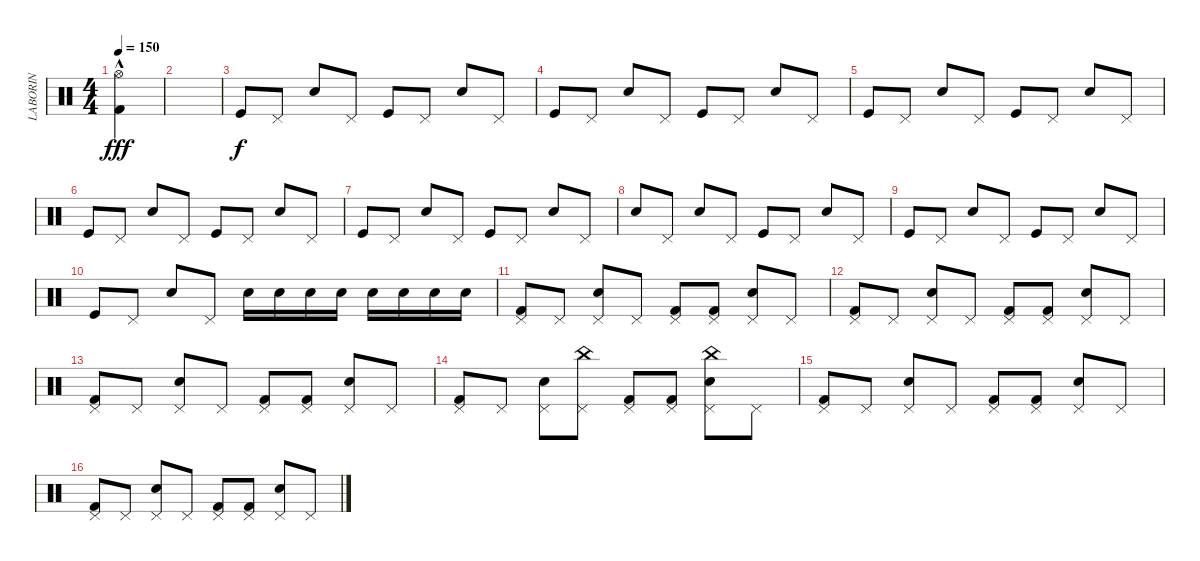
\track ("LABORIN" "LABORIN") {instrument percussion}
\staff {score}
\articulation defaults
\ts (4 4)
\tempo 150
\clef neutral
\ks c
("Kick (hit) 2"{hac} "Hi-Hat (open)").4{dy fff} |
|
"Kick (hit)".8{dy f} "Pedal Hi-Hat (hit)".8 "Snare (hit) 2".8 "Pedal Hi-Hat (hit)".8 "Kick (hit)".8 "Pedal Hi-Hat (hit)".8 "Snare (hit) 2".8 "Pedal Hi-Hat (hit)".8 |
"Kick (hit)".8 "Pedal Hi-Hat (hit)".8 "Snare (hit) 2".8 "Pedal Hi-Hat (hit)".8 "Kick (hit)".8 "Pedal Hi-Hat (hit)".8 "Snare (hit) 2".8 "Pedal Hi-Hat (hit)".8 |
"Kick (hit)".8 "Pedal Hi-Hat (hit)".8 "Snare (hit) 2".8 "Pedal Hi-Hat (hit)".8 "Kick (hit)".8 "Pedal Hi-Hat (hit)".8 "Snare (hit) 2".8 "Pedal Hi-Hat (hit)".8 |
"Kick (hit)".8 "Pedal Hi-Hat (hit)".8 "Snare (hit) 2".8 "Pedal Hi-Hat (hit)".8 "Kick (hit)".8 "Pedal Hi-Hat (hit)".8 "Snare (hit) 2".8 "Pedal Hi-Hat (hit)".8 |
"Kick (hit)".8 "Pedal Hi-Hat (hit)".8 "Snare (hit) 2".8 "Pedal Hi-Hat (hit)".8 "Kick (hit)".8 "Pedal Hi-Hat (hit)".8 "Snare (hit) 2".8 "Pedal Hi-Hat (hit)".8 |
"Snare (hit) 2".8 "Pedal Hi-Hat (hit)".8 "Snare (hit) 2".8 "Pedal Hi-Hat (hit)".8 "Kick (hit)".8 "Pedal Hi-Hat (hit)".8 "Snare (hit) 2".8 "Pedal Hi-Hat (hit)".8 |
"Kick (hit)".8 "Pedal Hi-Hat (hit)".8 "Snare (hit) 2".8 "Pedal Hi-Hat (hit)".8 "Kick (hit)".8 "Pedal Hi-Hat (hit)".8 "Snare (hit) 2".8 "Pedal Hi-Hat (hit)".8 |
"Kick (hit)".8 "Pedal Hi-Hat (hit)".8 "Snare (hit) 2".8 "Pedal Hi-Hat (hit)".8 "Snare (hit) 2".16 "Snare (hit) 2".16 "Snare (hit) 2".16 "Snare (hit) 2".16 "Snare (hit) 2".16 "Snare (hit) 2".16 "Snare (hit) 2".16 "Snare (hit) 2".16 |
("Kick (hit) 2" "Pedal Hi-Hat (hit)").8 "Pedal Hi-Hat (hit)".8 ("Snare (hit) 2" "Pedal Hi-Hat (hit)").8 "Pedal Hi-Hat (hit)".8 ("Kick (hit) 2" "Pedal Hi-Hat (hit)").8 ("Kick (hit) 2" "Pedal Hi-Hat (hit)").8 ("Snare (hit) 2" "Pedal Hi-Hat (hit)").8 "Pedal Hi-Hat (hit)".8 |
("Kick (hit) 2" "Pedal Hi-Hat (hit)").8 "Pedal Hi-Hat (hit)".8 ("Snare (hit) 2" "Pedal Hi-Hat (hit)").8 "Pedal Hi-Hat (hit)".8 ("Kick (hit) 2" "Pedal Hi-Hat (hit)").8 ("Kick (hit) 2" "Pedal Hi-Hat (hit)").8 ("Snare (hit) 2" "Pedal Hi-Hat (hit)").8 "Pedal Hi-Hat (hit)".8 |
("Kick (hit) 2" "Pedal Hi-Hat (hit)").8 "Pedal Hi-Hat (hit)".8 ("Snare (hit) 2" "Pedal Hi-Hat (hit)").8 "Pedal Hi-Hat (hit)".8 ("Kick (hit) 2" "Pedal Hi-Hat (hit)").8 ("Kick (hit) 2" "Pedal Hi-Hat (hit)").8 ("Snare (hit) 2" "Pedal Hi-Hat (hit)").8 "Pedal Hi-Hat (hit)".8 |
("Kick (hit) 2" "Pedal Hi-Hat (hit)").8 "Pedal Hi-Hat (hit)".8 ("Snare (hit) 2" "Pedal Hi-Hat (hit)").8 ("China (hit)" "Pedal Hi-Hat (hit)").8 ("Kick (hit) 2" "Pedal Hi-Hat (hit)").8 ("Kick (hit) 2" "Pedal Hi-Hat (hit)").8 ("China (hit)" "Snare (hit) 2" "Pedal Hi-Hat (hit)").8 "Pedal Hi-Hat (hit)".8 |
("Kick (hit) 2" "Pedal Hi-Hat (hit)").8 "Pedal Hi-Hat (hit)".8 ("Snare (hit) 2" "Pedal Hi-Hat (hit)").8 "Pedal Hi-Hat (hit)".8 ("Kick (hit) 2" "Pedal Hi-Hat (hit)").8 ("Kick (hit) 2" "Pedal Hi-Hat (hit)").8 ("Snare (hit) 2" "Pedal Hi-Hat (hit)").8 "Pedal Hi-Hat (hit)".8 |
("Kick (hit) 2" "Pedal Hi-Hat (hit)").8 "Pedal Hi-Hat (hit)".8 ("Snare (hit) 2" "Pedal Hi-Hat (hit)").8 "Pedal Hi-Hat (hit)".8 ("Kick (hit) 2" "Pedal Hi-Hat (hit)").8 ("Kick (hit) 2" "Pedal Hi-Hat (hit)").8 ("Snare (hit) 2" "Pedal Hi-Hat (hit)").8 "Pedal Hi-Hat (hit)".8
